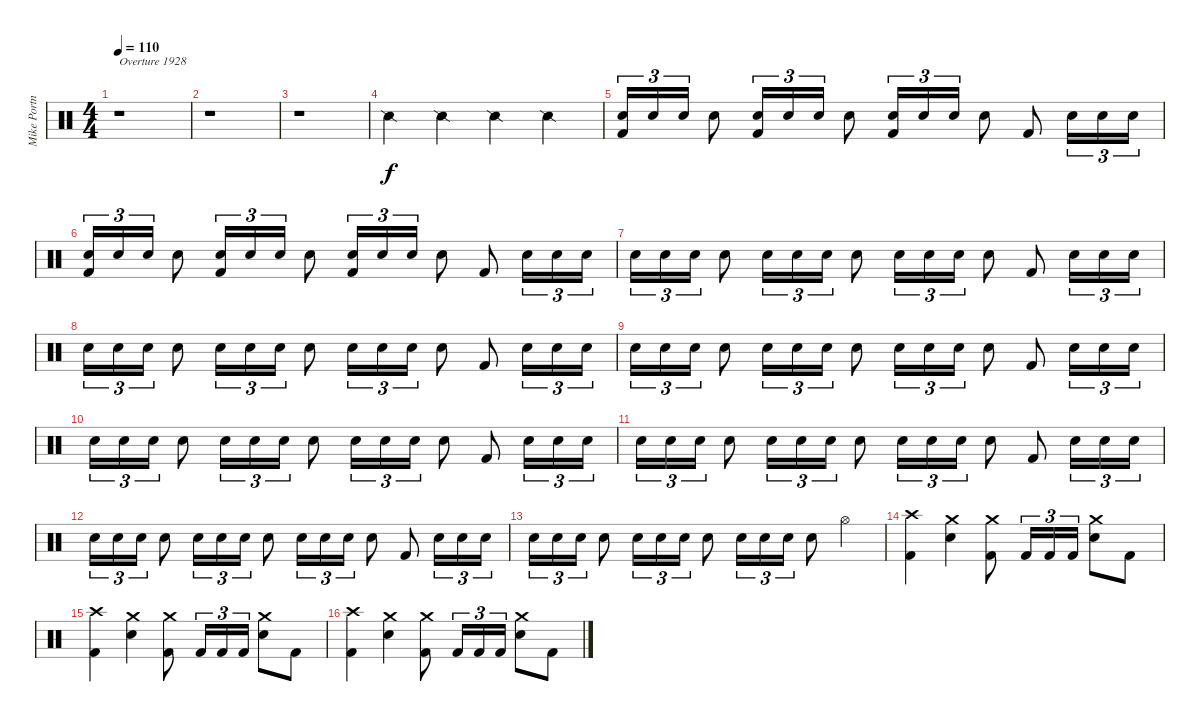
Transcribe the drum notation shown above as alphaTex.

\track ("Mike Portnoy - Drums" "Mike Portn") {instrument percussion}
\staff {score}
\articulation defaults
\ts (4 4)
\tempo 110
\clef neutral
\ks c
r.1{txt "Overture 1928" dy f} |
r.1 |
r.1 |
"Snare (side stick) 2".4 "Snare (side stick) 2".4 "Snare (side stick) 2".4 "Snare (side stick) 2".4 |
("Electric Snare (hit)" "Kick (hit) 2").16{tu (3 2)} "Electric Snare (hit)".16{tu (3 2)} "Electric Snare (hit)".16{tu (3 2)} "Electric Snare (hit)".8 ("Electric Snare (hit)" "Kick (hit) 2").16{tu (3 2)} "Electric Snare (hit)".16{tu (3 2)} "Electric Snare (hit)".16{tu (3 2)} "Electric Snare (hit)".8 ("Electric Snare (hit)" "Kick (hit) 2").16{tu (3 2)} "Electric Snare (hit)".16{tu (3 2)} "Electric Snare (hit)".16{tu (3 2)} "Electric Snare (hit)".8 "Kick (hit) 2".8 "Electric Snare (hit)".16{tu (3 2)} "Electric Snare (hit)".16{tu (3 2)} "Electric Snare (hit)".16{tu (3 2)} |
("Electric Snare (hit)" "Kick (hit) 2").16{tu (3 2)} "Electric Snare (hit)".16{tu (3 2)} "Electric Snare (hit)".16{tu (3 2)} "Electric Snare (hit)".8 ("Electric Snare (hit)" "Kick (hit) 2").16{tu (3 2)} "Electric Snare (hit)".16{tu (3 2)} "Electric Snare (hit)".16{tu (3 2)} "Electric Snare (hit)".8 ("Electric Snare (hit)" "Kick (hit) 2").16{tu (3 2)} "Electric Snare (hit)".16{tu (3 2)} "Electric Snare (hit)".16{tu (3 2)} "Electric Snare (hit)".8 "Kick (hit) 2".8 "Electric Snare (hit)".16{tu (3 2)} "Electric Snare (hit)".16{tu (3 2)} "Electric Snare (hit)".16{tu (3 2)} |
"Electric Snare (hit)".16{tu (3 2)} "Electric Snare (hit)".16{tu (3 2)} "Electric Snare (hit)".16{tu (3 2)} "Electric Snare (hit)".8 "Electric Snare (hit)".16{tu (3 2)} "Electric Snare (hit)".16{tu (3 2)} "Electric Snare (hit)".16{tu (3 2)} "Electric Snare (hit)".8 "Electric Snare (hit)".16{tu (3 2)} "Electric Snare (hit)".16{tu (3 2)} "Electric Snare (hit)".16{tu (3 2)} "Electric Snare (hit)".8 "Kick (hit) 2".8 "Electric Snare (hit)".16{tu (3 2)} "Electric Snare (hit)".16{tu (3 2)} "Electric Snare (hit)".16{tu (3 2)} |
"Electric Snare (hit)".16{tu (3 2)} "Electric Snare (hit)".16{tu (3 2)} "Electric Snare (hit)".16{tu (3 2)} "Electric Snare (hit)".8 "Electric Snare (hit)".16{tu (3 2)} "Electric Snare (hit)".16{tu (3 2)} "Electric Snare (hit)".16{tu (3 2)} "Electric Snare (hit)".8 "Electric Snare (hit)".16{tu (3 2)} "Electric Snare (hit)".16{tu (3 2)} "Electric Snare (hit)".16{tu (3 2)} "Electric Snare (hit)".8 "Kick (hit) 2".8 "Electric Snare (hit)".16{tu (3 2)} "Electric Snare (hit)".16{tu (3 2)} "Electric Snare (hit)".16{tu (3 2)} |
"Electric Snare (hit)".16{tu (3 2)} "Electric Snare (hit)".16{tu (3 2)} "Electric Snare (hit)".16{tu (3 2)} "Electric Snare (hit)".8 "Electric Snare (hit)".16{tu (3 2)} "Electric Snare (hit)".16{tu (3 2)} "Electric Snare (hit)".16{tu (3 2)} "Electric Snare (hit)".8 "Electric Snare (hit)".16{tu (3 2)} "Electric Snare (hit)".16{tu (3 2)} "Electric Snare (hit)".16{tu (3 2)} "Electric Snare (hit)".8 "Kick (hit) 2".8 "Electric Snare (hit)".16{tu (3 2)} "Electric Snare (hit)".16{tu (3 2)} "Electric Snare (hit)".16{tu (3 2)} |
"Electric Snare (hit)".16{tu (3 2)} "Electric Snare (hit)".16{tu (3 2)} "Electric Snare (hit)".16{tu (3 2)} "Electric Snare (hit)".8 "Electric Snare (hit)".16{tu (3 2)} "Electric Snare (hit)".16{tu (3 2)} "Electric Snare (hit)".16{tu (3 2)} "Electric Snare (hit)".8 "Electric Snare (hit)".16{tu (3 2)} "Electric Snare (hit)".16{tu (3 2)} "Electric Snare (hit)".16{tu (3 2)} "Electric Snare (hit)".8 "Kick (hit) 2".8 "Electric Snare (hit)".16{tu (3 2)} "Electric Snare (hit)".16{tu (3 2)} "Electric Snare (hit)".16{tu (3 2)} |
"Electric Snare (hit)".16{tu (3 2)} "Electric Snare (hit)".16{tu (3 2)} "Electric Snare (hit)".16{tu (3 2)} "Electric Snare (hit)".8 "Electric Snare (hit)".16{tu (3 2)} "Electric Snare (hit)".16{tu (3 2)} "Electric Snare (hit)".16{tu (3 2)} "Electric Snare (hit)".8 "Electric Snare (hit)".16{tu (3 2)} "Electric Snare (hit)".16{tu (3 2)} "Electric Snare (hit)".16{tu (3 2)} "Electric Snare (hit)".8 "Kick (hit) 2".8 "Electric Snare (hit)".16{tu (3 2)} "Electric Snare (hit)".16{tu (3 2)} "Electric Snare (hit)".16{tu (3 2)} |
"Electric Snare (hit)".16{tu (3 2)} "Electric Snare (hit)".16{tu (3 2)} "Electric Snare (hit)".16{tu (3 2)} "Electric Snare (hit)".8 "Electric Snare (hit)".16{tu (3 2)} "Electric Snare (hit)".16{tu (3 2)} "Electric Snare (hit)".16{tu (3 2)} "Electric Snare (hit)".8 "Electric Snare (hit)".16{tu (3 2)} "Electric Snare (hit)".16{tu (3 2)} "Electric Snare (hit)".16{tu (3 2)} "Electric Snare (hit)".8 "Kick (hit) 2".8 "Electric Snare (hit)".16{tu (3 2)} "Electric Snare (hit)".16{tu (3 2)} "Electric Snare (hit)".16{tu (3 2)} |
"Electric Snare (hit)".16{tu (3 2)} "Electric Snare (hit)".16{tu (3 2)} "Electric Snare (hit)".16{tu (3 2)} "Electric Snare (hit)".8 "Electric Snare (hit)".16{tu (3 2)} "Electric Snare (hit)".16{tu (3 2)} "Electric Snare (hit)".16{tu (3 2)} "Electric Snare (hit)".8 "Electric Snare (hit)".16{tu (3 2)} "Electric Snare (hit)".16{tu (3 2)} "Electric Snare (hit)".16{tu (3 2)} "Electric Snare (hit)".8 "Hi-Hat (open)".4 |
("Crash high (hit)" "Kick (hit) 2").4 ("Crash medium (hit)" "Electric Snare (hit)").4 ("Crash medium (hit)" "Kick (hit) 2").8 "Kick (hit) 2".16{tu (3 2)} "Kick (hit) 2".16{tu (3 2)} "Kick (hit) 2".16{tu (3 2)} ("Crash medium (hit)" "Electric Snare (hit)").8 "Kick (hit) 2".8 |
("Crash high (hit)" "Kick (hit) 2").4 ("Crash medium (hit)" "Electric Snare (hit)").4 ("Crash medium (hit)" "Kick (hit) 2").8 "Kick (hit) 2".16{tu (3 2)} "Kick (hit) 2".16{tu (3 2)} "Kick (hit) 2".16{tu (3 2)} ("Crash medium (hit)" "Electric Snare (hit)").8 "Kick (hit) 2".8 |
("Crash high (hit)" "Kick (hit) 2").4 ("Crash medium (hit)" "Electric Snare (hit)").4 ("Crash medium (hit)" "Kick (hit) 2").8 "Kick (hit) 2".16{tu (3 2)} "Kick (hit) 2".16{tu (3 2)} "Kick (hit) 2".16{tu (3 2)} ("Crash medium (hit)" "Electric Snare (hit)").8 "Kick (hit) 2".8
